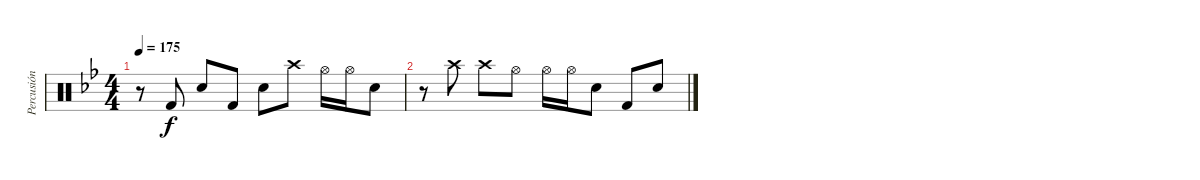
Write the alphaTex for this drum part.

\track ("Percusión" "Percusión") {instrument percussion}
\staff {score}
\articulation defaults
\ts (4 4)
\tempo 175
\clef neutral
\ks bb
r.8{dy f} "Kick (hit) 2".8 "Electric Snare (hit)".8 "Kick (hit) 2".8 "Electric Snare (hit)".8 "Crash high (hit)".8 "Hi-Hat (open)".16 "Hi-Hat (open)".16 "Electric Snare (hit)".8 |
r.8 "Crash high (hit)".8 "Crash high (hit)".8 "Hi-Hat (open)".8 "Hi-Hat (open)".16 "Hi-Hat (open)".16 "Electric Snare (hit)".8 "Kick (hit) 2".8 "Electric Snare (hit)".8
